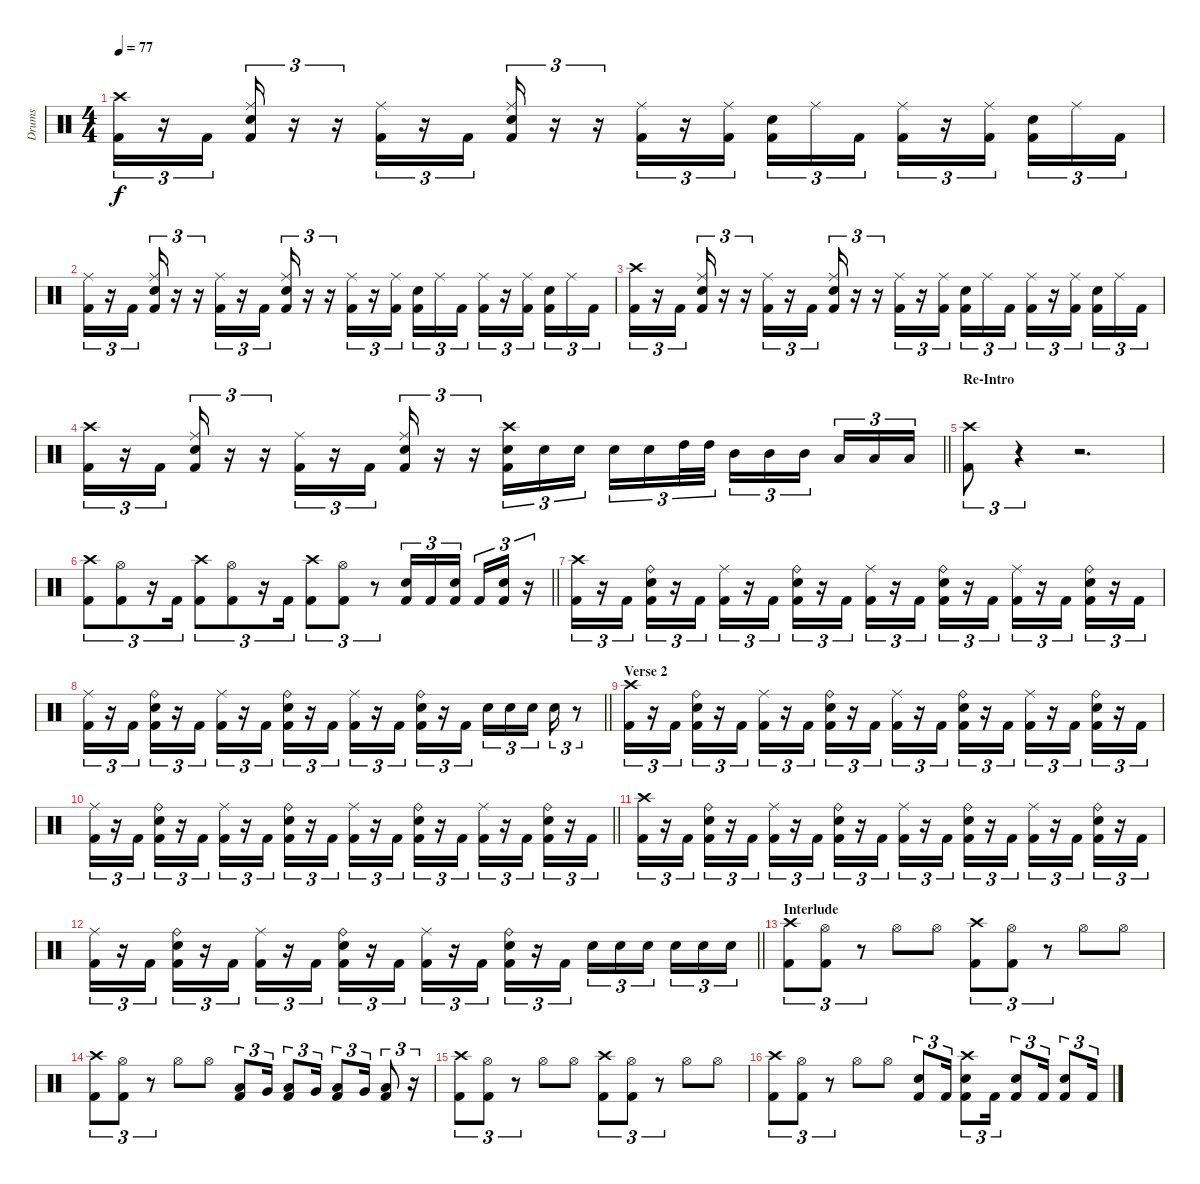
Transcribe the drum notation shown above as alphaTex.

\track ("Drums" "Drums") {instrument percussion}
\staff {score}
\articulation defaults
\ts (4 4)
\tempo 77
\clef neutral
\ks c
("Crash high (hit)" "Kick (hit) 2").16{tu (3 2) dy f} r.16{tu (3 2)} "Kick (hit) 2".16{tu (3 2)} ("Ride (middle)" "Snare (hit) 2" "Kick (hit) 2").16{tu (3 2)} r.16{tu (3 2)} r.16{tu (3 2)} ("Ride (middle)" "Kick (hit) 2").16{tu (3 2)} r.16{tu (3 2)} "Kick (hit) 2".16{tu (3 2)} ("Ride (middle)" "Snare (hit) 2" "Kick (hit) 2").16{tu (3 2)} r.16{tu (3 2)} r.16{tu (3 2)} ("Ride (middle)" "Kick (hit) 2").16{tu (3 2)} r.16{tu (3 2)} ("Ride (middle)" "Kick (hit) 2").16{tu (3 2) beam splitsecondary} ("Snare (hit) 2" "Kick (hit) 2").16{tu (3 2)} "Ride (middle)".16{tu (3 2)} "Kick (hit) 2".16{tu (3 2)} ("Ride (middle)" "Kick (hit) 2").16{tu (3 2)} r.16{tu (3 2)} ("Ride (middle)" "Kick (hit) 2").16{tu (3 2) beam splitsecondary} ("Snare (hit) 2" "Kick (hit) 2").16{tu (3 2)} "Ride (middle)".16{tu (3 2)} "Kick (hit) 2".16{tu (3 2)} |
("Ride (middle)" "Kick (hit) 2").16{tu (3 2)} r.16{tu (3 2)} "Kick (hit) 2".16{tu (3 2)} ("Ride (middle)" "Snare (hit) 2" "Kick (hit) 2").16{tu (3 2)} r.16{tu (3 2)} r.16{tu (3 2)} ("Ride (middle)" "Kick (hit) 2").16{tu (3 2)} r.16{tu (3 2)} "Kick (hit) 2".16{tu (3 2)} ("Ride (middle)" "Snare (hit) 2" "Kick (hit) 2").16{tu (3 2)} r.16{tu (3 2)} r.16{tu (3 2)} ("Ride (middle)" "Kick (hit) 2").16{tu (3 2)} r.16{tu (3 2)} ("Ride (middle)" "Kick (hit) 2").16{tu (3 2) beam splitsecondary} ("Snare (hit) 2" "Kick (hit) 2").16{tu (3 2)} "Ride (middle)".16{tu (3 2)} "Kick (hit) 2".16{tu (3 2)} ("Ride (middle)" "Kick (hit) 2").16{tu (3 2)} r.16{tu (3 2)} ("Ride (middle)" "Kick (hit) 2").16{tu (3 2) beam splitsecondary} ("Snare (hit) 2" "Kick (hit) 2").16{tu (3 2)} "Ride (middle)".16{tu (3 2)} "Kick (hit) 2".16{tu (3 2)} |
("Crash high (hit)" "Kick (hit) 2").16{tu (3 2)} r.16{tu (3 2)} "Kick (hit) 2".16{tu (3 2)} ("Ride (middle)" "Snare (hit) 2" "Kick (hit) 2").16{tu (3 2)} r.16{tu (3 2)} r.16{tu (3 2)} ("Ride (middle)" "Kick (hit) 2").16{tu (3 2)} r.16{tu (3 2)} "Kick (hit) 2".16{tu (3 2)} ("Ride (middle)" "Snare (hit) 2" "Kick (hit) 2").16{tu (3 2)} r.16{tu (3 2)} r.16{tu (3 2)} ("Ride (middle)" "Kick (hit) 2").16{tu (3 2)} r.16{tu (3 2)} ("Ride (middle)" "Kick (hit) 2").16{tu (3 2) beam splitsecondary} ("Snare (hit) 2" "Kick (hit) 2").16{tu (3 2)} "Ride (middle)".16{tu (3 2)} "Kick (hit) 2".16{tu (3 2)} ("Ride (middle)" "Kick (hit) 2").16{tu (3 2)} r.16{tu (3 2)} ("Ride (middle)" "Kick (hit) 2").16{tu (3 2) beam splitsecondary} ("Snare (hit) 2" "Kick (hit) 2").16{tu (3 2)} "Ride (middle)".16{tu (3 2)} "Kick (hit) 2".16{tu (3 2)} |
\barLineRight lightlight
("Crash high (hit)" "Kick (hit) 2").16{tu (3 2)} r.16{tu (3 2)} "Kick (hit) 2".16{tu (3 2)} ("Ride (middle)" "Snare (hit) 2" "Kick (hit) 2").16{tu (3 2)} r.16{tu (3 2)} r.16{tu (3 2)} ("Ride (middle)" "Kick (hit) 2").16{tu (3 2)} r.16{tu (3 2)} "Kick (hit) 2".16{tu (3 2)} ("Ride (middle)" "Snare (hit) 2" "Kick (hit) 2").16{tu (3 2)} r.16{tu (3 2)} r.16{tu (3 2)} ("Crash high (hit)" "Snare (hit) 2" "Kick (hit) 2").16{tu (3 2)} "Snare (hit) 2".16{tu (3 2)} "Snare (hit) 2".16{tu (3 2) beam splitsecondary} "Snare (hit) 2".16{tu (3 2)} "Snare (hit) 2".16{tu (3 2)} "High Tom (hit)".32{tu (3 2)} "High Tom (hit)".32{tu (3 2)} "Mid Tom (hit)".16{tu (3 2)} "Mid Tom (hit)".16{tu (3 2)} "Mid Tom (hit)".16{tu (3 2) beam splitsecondary} "Low Tom (hit)".16{tu (3 2)} "Low Tom (hit)".16{tu (3 2)} "Low Tom (hit)".16{tu (3 2)} |
\section ("" "Re-Intro")
("Crash high (hit)" "Kick (hit) 2").8{tu (3 2)} r.4{tu (3 2)} r.2{d} |
\barLineRight lightlight
("Crash high (hit)" "Kick (hit) 2").8{tu (3 2)} ("Hi-Hat (open)" "Kick (hit) 2").8{tu (3 2)} r.16{tu (3 2)} "Kick (hit) 2".16{tu (3 2)} ("Crash high (hit)" "Kick (hit) 2").8{tu (3 2)} ("Hi-Hat (open)" "Kick (hit) 2").8{tu (3 2)} r.16{tu (3 2)} "Kick (hit) 2".16{tu (3 2)} ("Crash high (hit)" "Kick (hit) 2").8{tu (3 2)} ("Hi-Hat (open)" "Kick (hit) 2").8{tu (3 2)} r.8{tu (3 2)} ("Snare (hit) 2" "Kick (hit) 2").16{tu (3 2)} "Kick (hit) 2".16{tu (3 2)} ("Snare (hit) 2" "Kick (hit) 2").16{tu (3 2) beam splitsecondary} "Kick (hit) 2".16{tu (3 2)} ("Snare (hit) 2" "Kick (hit) 2").16{tu (3 2)} r.16{tu (3 2)} |
("Crash high (hit)" "Kick (hit) 2").16{tu (3 2)} r.16{tu (3 2)} "Kick (hit) 2".16{tu (3 2)} ("Ride (bell)" "Snare (hit) 2" "Kick (hit) 2").16{tu (3 2)} r.16{tu (3 2)} "Kick (hit) 2".16{tu (3 2)} ("Ride (middle)" "Kick (hit) 2").16{tu (3 2)} r.16{tu (3 2)} "Kick (hit) 2".16{tu (3 2)} ("Ride (bell)" "Snare (hit) 2" "Kick (hit) 2").16{tu (3 2)} r.16{tu (3 2)} "Kick (hit) 2".16{tu (3 2)} ("Ride (middle)" "Kick (hit) 2").16{tu (3 2)} r.16{tu (3 2)} "Kick (hit) 2".16{tu (3 2)} ("Ride (bell)" "Snare (hit) 2" "Kick (hit) 2").16{tu (3 2)} r.16{tu (3 2)} "Kick (hit) 2".16{tu (3 2)} ("Ride (middle)" "Kick (hit) 2").16{tu (3 2)} r.16{tu (3 2)} "Kick (hit) 2".16{tu (3 2)} ("Ride (bell)" "Snare (hit) 2" "Kick (hit) 2").16{tu (3 2)} r.16{tu (3 2)} "Kick (hit) 2".16{tu (3 2)} |
\barLineRight lightlight
("Ride (middle)" "Kick (hit) 2").16{tu (3 2)} r.16{tu (3 2)} "Kick (hit) 2".16{tu (3 2)} ("Ride (bell)" "Snare (hit) 2" "Kick (hit) 2").16{tu (3 2)} r.16{tu (3 2)} "Kick (hit) 2".16{tu (3 2)} ("Ride (middle)" "Kick (hit) 2").16{tu (3 2)} r.16{tu (3 2)} "Kick (hit) 2".16{tu (3 2)} ("Ride (bell)" "Snare (hit) 2" "Kick (hit) 2").16{tu (3 2)} r.16{tu (3 2)} "Kick (hit) 2".16{tu (3 2)} ("Ride (middle)" "Kick (hit) 2").16{tu (3 2)} r.16{tu (3 2)} "Kick (hit) 2".16{tu (3 2)} ("Ride (bell)" "Snare (hit) 2" "Kick (hit) 2").16{tu (3 2)} r.16{tu (3 2)} "Kick (hit) 2".16{tu (3 2)} "Snare (hit) 2".16{tu (3 2)} "Snare (hit) 2".16{tu (3 2)} "Snare (hit) 2".16{tu (3 2) beam splitsecondary} "Snare (hit) 2".16{tu (3 2)} r.8{tu (3 2)} |
\section ("" "Verse 2")
("Crash high (hit)" "Kick (hit) 2").16{tu (3 2)} r.16{tu (3 2)} "Kick (hit) 2".16{tu (3 2)} ("Ride (bell)" "Snare (hit) 2" "Kick (hit) 2").16{tu (3 2)} r.16{tu (3 2)} "Kick (hit) 2".16{tu (3 2)} ("Ride (middle)" "Kick (hit) 2").16{tu (3 2)} r.16{tu (3 2)} "Kick (hit) 2".16{tu (3 2)} ("Ride (bell)" "Snare (hit) 2" "Kick (hit) 2").16{tu (3 2)} r.16{tu (3 2)} "Kick (hit) 2".16{tu (3 2)} ("Ride (middle)" "Kick (hit) 2").16{tu (3 2)} r.16{tu (3 2)} "Kick (hit) 2".16{tu (3 2)} ("Ride (bell)" "Snare (hit) 2" "Kick (hit) 2").16{tu (3 2)} r.16{tu (3 2)} "Kick (hit) 2".16{tu (3 2)} ("Ride (middle)" "Kick (hit) 2").16{tu (3 2)} r.16{tu (3 2)} "Kick (hit) 2".16{tu (3 2)} ("Ride (bell)" "Snare (hit) 2" "Kick (hit) 2").16{tu (3 2)} r.16{tu (3 2)} "Kick (hit) 2".16{tu (3 2)} |
\barLineRight lightlight
("Ride (middle)" "Kick (hit) 2").16{tu (3 2)} r.16{tu (3 2)} "Kick (hit) 2".16{tu (3 2)} ("Ride (bell)" "Snare (hit) 2" "Kick (hit) 2").16{tu (3 2)} r.16{tu (3 2)} "Kick (hit) 2".16{tu (3 2)} ("Ride (middle)" "Kick (hit) 2").16{tu (3 2)} r.16{tu (3 2)} "Kick (hit) 2".16{tu (3 2)} ("Ride (bell)" "Snare (hit) 2" "Kick (hit) 2").16{tu (3 2)} r.16{tu (3 2)} "Kick (hit) 2".16{tu (3 2)} ("Ride (middle)" "Kick (hit) 2").16{tu (3 2)} r.16{tu (3 2)} "Kick (hit) 2".16{tu (3 2)} ("Ride (bell)" "Snare (hit) 2" "Kick (hit) 2").16{tu (3 2)} r.16{tu (3 2)} "Kick (hit) 2".16{tu (3 2)} ("Ride (middle)" "Kick (hit) 2").16{tu (3 2)} r.16{tu (3 2)} "Kick (hit) 2".16{tu (3 2)} ("Ride (bell)" "Snare (hit) 2" "Kick (hit) 2").16{tu (3 2)} r.16{tu (3 2)} "Kick (hit) 2".16{tu (3 2)} |
("Crash high (hit)" "Kick (hit) 2").16{tu (3 2)} r.16{tu (3 2)} "Kick (hit) 2".16{tu (3 2)} ("Ride (bell)" "Snare (hit) 2" "Kick (hit) 2").16{tu (3 2)} r.16{tu (3 2)} "Kick (hit) 2".16{tu (3 2)} ("Ride (middle)" "Kick (hit) 2").16{tu (3 2)} r.16{tu (3 2)} "Kick (hit) 2".16{tu (3 2)} ("Ride (bell)" "Snare (hit) 2" "Kick (hit) 2").16{tu (3 2)} r.16{tu (3 2)} "Kick (hit) 2".16{tu (3 2)} ("Ride (middle)" "Kick (hit) 2").16{tu (3 2)} r.16{tu (3 2)} "Kick (hit) 2".16{tu (3 2)} ("Ride (bell)" "Snare (hit) 2" "Kick (hit) 2").16{tu (3 2)} r.16{tu (3 2)} "Kick (hit) 2".16{tu (3 2)} ("Ride (middle)" "Kick (hit) 2").16{tu (3 2)} r.16{tu (3 2)} "Kick (hit) 2".16{tu (3 2)} ("Ride (bell)" "Snare (hit) 2" "Kick (hit) 2").16{tu (3 2)} r.16{tu (3 2)} "Kick (hit) 2".16{tu (3 2)} |
\barLineRight lightlight
("Ride (middle)" "Kick (hit) 2").16{tu (3 2)} r.16{tu (3 2)} "Kick (hit) 2".16{tu (3 2)} ("Ride (bell)" "Snare (hit) 2" "Kick (hit) 2").16{tu (3 2)} r.16{tu (3 2)} "Kick (hit) 2".16{tu (3 2)} ("Ride (middle)" "Kick (hit) 2").16{tu (3 2)} r.16{tu (3 2)} "Kick (hit) 2".16{tu (3 2)} ("Ride (bell)" "Snare (hit) 2" "Kick (hit) 2").16{tu (3 2)} r.16{tu (3 2)} "Kick (hit) 2".16{tu (3 2)} ("Ride (middle)" "Kick (hit) 2").16{tu (3 2)} r.16{tu (3 2)} "Kick (hit) 2".16{tu (3 2)} ("Ride (bell)" "Snare (hit) 2" "Kick (hit) 2").16{tu (3 2)} r.16{tu (3 2)} "Kick (hit) 2".16{tu (3 2)} "Snare (hit) 2".16{tu (3 2)} "Snare (hit) 2".16{tu (3 2)} "Snare (hit) 2".16{tu (3 2) beam splitsecondary} "Snare (hit) 2".16{tu (3 2)} "Snare (hit) 2".16{tu (3 2)} "Snare (hit) 2".16{tu (3 2)} |
\section ("" "Interlude")
("Crash high (hit)" "Kick (hit) 2").8{tu (3 2)} ("Hi-Hat (open)" "Kick (hit) 2").8{tu (3 2)} r.8{tu (3 2)} "Hi-Hat (open)".8 "Hi-Hat (open)".8 ("Crash high (hit)" "Kick (hit) 2").8{tu (3 2)} ("Hi-Hat (open)" "Kick (hit) 2").8{tu (3 2)} r.8{tu (3 2)} "Hi-Hat (open)".8 "Hi-Hat (open)".8 |
("Crash high (hit)" "Kick (hit) 2").8{tu (3 2)} ("Hi-Hat (open)" "Kick (hit) 2").8{tu (3 2)} r.8{tu (3 2)} "Hi-Hat (open)".8 "Hi-Hat (open)".8 ("Low Tom (hit)" "Kick (hit) 2").8{tu (3 2)} "Very Low Tom (hit)".16{tu (3 2)} ("Low Tom (hit)" "Kick (hit) 2").8{tu (3 2)} "Very Low Tom (hit)".16{tu (3 2)} ("Low Tom (hit)" "Kick (hit) 2").8{tu (3 2)} "Very Low Tom (hit)".16{tu (3 2)} ("Low Tom (hit)" "Kick (hit) 2").8{tu (3 2)} r.16{tu (3 2)} |
("Crash high (hit)" "Kick (hit) 2").8{tu (3 2)} ("Hi-Hat (open)" "Kick (hit) 2").8{tu (3 2)} r.8{tu (3 2)} "Hi-Hat (open)".8 "Hi-Hat (open)".8 ("Crash high (hit)" "Kick (hit) 2").8{tu (3 2)} ("Hi-Hat (open)" "Kick (hit) 2").8{tu (3 2)} r.8{tu (3 2)} "Hi-Hat (open)".8 "Hi-Hat (open)".8 |
("Crash high (hit)" "Kick (hit) 2").8{tu (3 2)} ("Hi-Hat (open)" "Kick (hit) 2").8{tu (3 2)} r.8{tu (3 2)} "Hi-Hat (open)".8 "Hi-Hat (open)".8 ("Snare (hit) 2" "Kick (hit) 2").8{tu (3 2)} "Kick (hit) 2".16{tu (3 2)} ("Crash high (hit)" "Snare (hit) 2" "Kick (hit) 2").8{tu (3 2)} "Kick (hit) 2".16{tu (3 2)} ("Snare (hit) 2" "Kick (hit) 2").8{tu (3 2)} "Kick (hit) 2".16{tu (3 2)} ("Snare (hit) 2" "Kick (hit) 2").8{tu (3 2)} "Kick (hit) 2".16{tu (3 2)}
